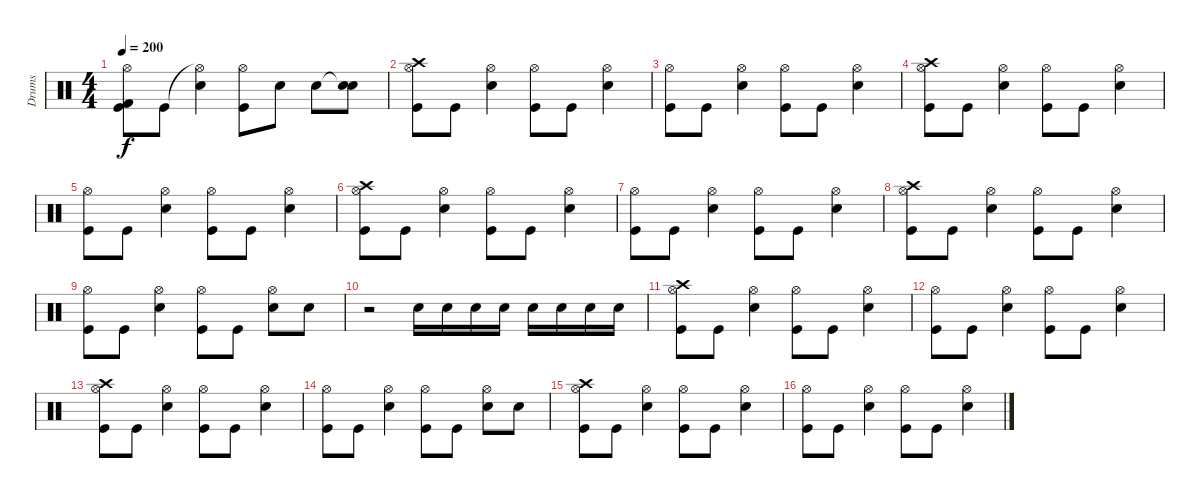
\track ("Drums" "Drums") {instrument percussion}
\staff {score}
\articulation defaults
\ts (4 4)
\tempo 200
\clef neutral
\ks c
("Hi-Hat (open)" "Kick (hit) 2" "Kick (hit)").8{dy f} "Kick (hit)".8 ("Hi-Hat (open)"{t} "Snare (hit) 2").4 ("Hi-Hat (open)" "Kick (hit)").8 "Snare (hit) 2".8 "Snare (hit) 2".8 ("Snare (hit)"{t} "Snare (hit) 2").8 |
("Crash high (hit)" "Hi-Hat (open)" "Kick (hit)").8 "Kick (hit)".8 ("Hi-Hat (open)" "Snare (hit) 2").4 ("Hi-Hat (open)" "Kick (hit)").8 "Kick (hit)".8 ("Hi-Hat (open)" "Snare (hit) 2").4 |
("Hi-Hat (open)" "Kick (hit)").8 "Kick (hit)".8 ("Hi-Hat (open)" "Snare (hit) 2").4 ("Hi-Hat (open)" "Kick (hit)").8 "Kick (hit)".8 ("Hi-Hat (open)" "Snare (hit) 2").4 |
("Crash high (hit)" "Hi-Hat (open)" "Kick (hit)").8 "Kick (hit)".8 ("Hi-Hat (open)" "Snare (hit) 2").4 ("Hi-Hat (open)" "Kick (hit)").8 "Kick (hit)".8 ("Hi-Hat (open)" "Snare (hit) 2").4 |
("Hi-Hat (open)" "Kick (hit)").8 "Kick (hit)".8 ("Hi-Hat (open)" "Snare (hit) 2").4 ("Hi-Hat (open)" "Kick (hit)").8 "Kick (hit)".8 ("Hi-Hat (open)" "Snare (hit) 2").4 |
("Crash high (hit)" "Hi-Hat (open)" "Kick (hit)").8 "Kick (hit)".8 ("Hi-Hat (open)" "Snare (hit) 2").4 ("Hi-Hat (open)" "Kick (hit)").8 "Kick (hit)".8 ("Hi-Hat (open)" "Snare (hit) 2").4 |
("Hi-Hat (open)" "Kick (hit)").8 "Kick (hit)".8 ("Hi-Hat (open)" "Snare (hit) 2").4 ("Hi-Hat (open)" "Kick (hit)").8 "Kick (hit)".8 ("Hi-Hat (open)" "Snare (hit) 2").4 |
("Crash high (hit)" "Hi-Hat (open)" "Kick (hit)").8 "Kick (hit)".8 ("Hi-Hat (open)" "Snare (hit) 2").4 ("Hi-Hat (open)" "Kick (hit)").8 "Kick (hit)".8 ("Hi-Hat (open)" "Snare (hit) 2").4 |
("Hi-Hat (open)" "Kick (hit)").8 "Kick (hit)".8 ("Hi-Hat (open)" "Snare (hit) 2").4 ("Hi-Hat (open)" "Kick (hit)").8 "Kick (hit)".8 ("Hi-Hat (open)" "Snare (hit) 2").8 "Snare (hit) 2".8 |
r.2 "Snare (hit) 2".16 "Snare (hit) 2".16 "Snare (hit) 2".16 "Snare (hit) 2".16 "Snare (hit) 2".16 "Snare (hit) 2".16 "Snare (hit) 2".16 "Snare (hit) 2".16 |
("Crash high (hit)" "Hi-Hat (open)" "Kick (hit)").8 "Kick (hit)".8 ("Hi-Hat (open)" "Snare (hit) 2").4 ("Hi-Hat (open)" "Kick (hit)").8 "Kick (hit)".8 ("Hi-Hat (open)" "Snare (hit) 2").4 |
("Hi-Hat (open)" "Kick (hit)").8 "Kick (hit)".8 ("Hi-Hat (open)" "Snare (hit) 2").4 ("Hi-Hat (open)" "Kick (hit)").8 "Kick (hit)".8 ("Hi-Hat (open)" "Snare (hit) 2").4 |
("Crash high (hit)" "Hi-Hat (open)" "Kick (hit)").8 "Kick (hit)".8 ("Hi-Hat (open)" "Snare (hit) 2").4 ("Hi-Hat (open)" "Kick (hit)").8 "Kick (hit)".8 ("Hi-Hat (open)" "Snare (hit) 2").4 |
("Hi-Hat (open)" "Kick (hit)").8 "Kick (hit)".8 ("Hi-Hat (open)" "Snare (hit) 2").4 ("Hi-Hat (open)" "Kick (hit)").8 "Kick (hit)".8 ("Hi-Hat (open)" "Snare (hit) 2").8 "Snare (hit) 2".8 |
("Crash high (hit)" "Hi-Hat (open)" "Kick (hit)").8 "Kick (hit)".8 ("Hi-Hat (open)" "Snare (hit) 2").4 ("Hi-Hat (open)" "Kick (hit)").8 "Kick (hit)".8 ("Hi-Hat (open)" "Snare (hit) 2").4 |
("Hi-Hat (open)" "Kick (hit)").8 "Kick (hit)".8 ("Hi-Hat (open)" "Snare (hit) 2").4 ("Hi-Hat (open)" "Kick (hit)").8 "Kick (hit)".8 ("Hi-Hat (open)" "Snare (hit) 2").4
